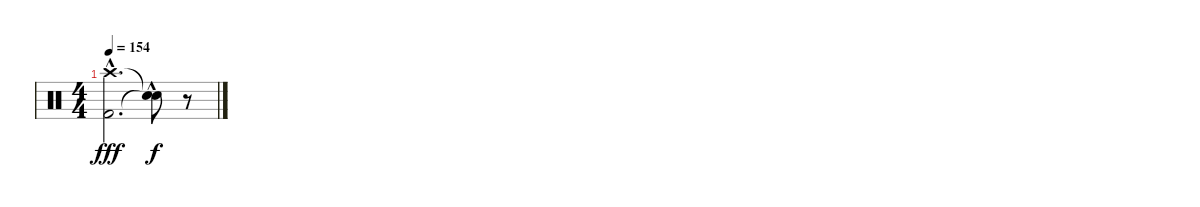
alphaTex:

\track "" {instrument percussion}
\staff {score}
\articulation defaults
\ts (4 4)
\tempo 154
\clef neutral
\ks c
("Crash high (hit)"{hac} "Kick (hit) 2"{hac}).2{d dy fff} ("Snare (hit)"{hac t} "Snare (hit)"{t}).8{dy f} r.8
